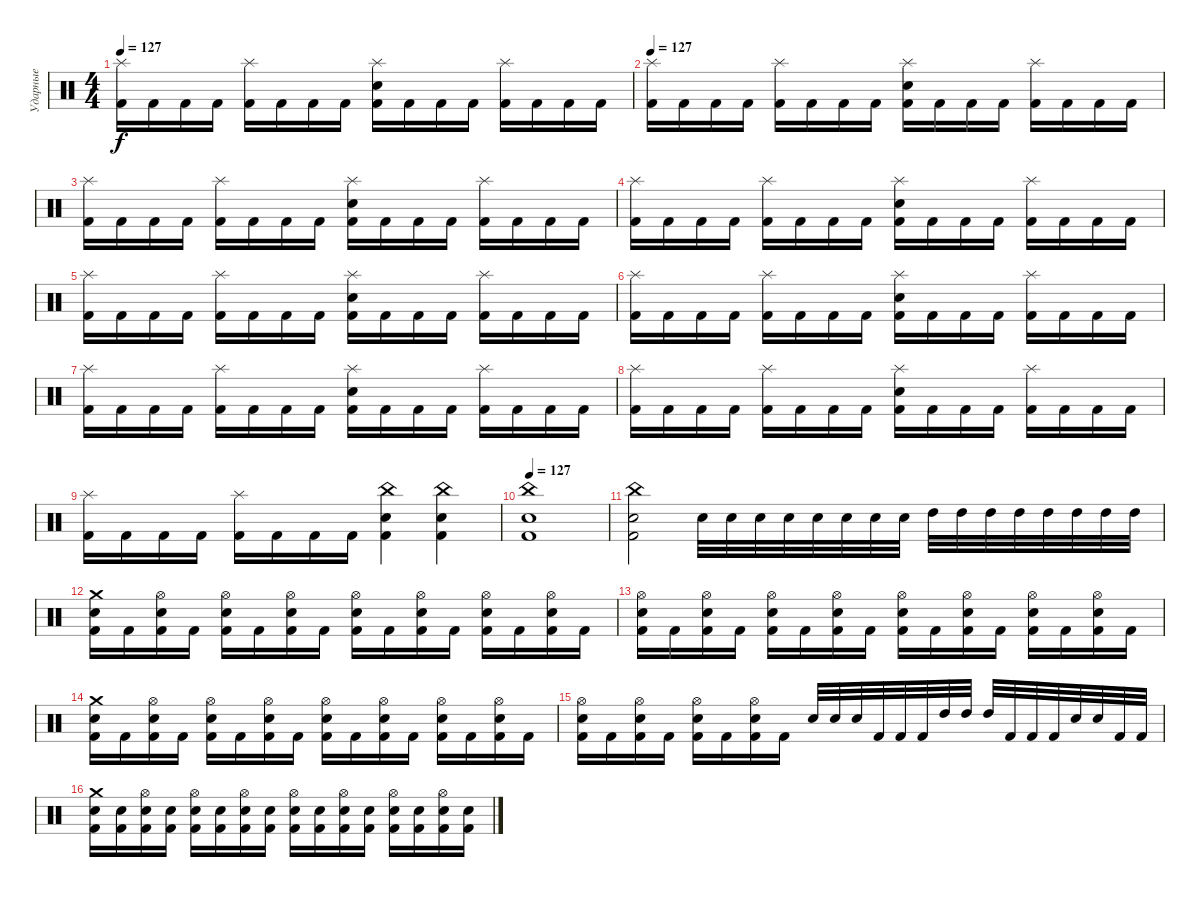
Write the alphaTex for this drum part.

\track ("Ударные" "Ударные") {instrument percussion bank 1}
\staff {score}
\articulation defaults
\ts (4 4)
\tempo 127
\clef neutral
\ks c
("Splash (hit)" "Kick (hit) 2").16{dy f} "Kick (hit) 2".16 "Kick (hit) 2".16 "Kick (hit) 2".16 ("Splash (hit)" "Kick (hit) 2").16 "Kick (hit) 2".16 "Kick (hit) 2".16 "Kick (hit) 2".16 ("Splash (hit)" "Electric Snare (hit)" "Kick (hit) 2").16 "Kick (hit) 2".16 "Kick (hit) 2".16 "Kick (hit) 2".16 ("Splash (hit)" "Kick (hit) 2").16 "Kick (hit) 2".16 "Kick (hit) 2".16 "Kick (hit) 2".16 |
\tempo 127
("Splash (hit)" "Kick (hit) 2").16 "Kick (hit) 2".16 "Kick (hit) 2".16 "Kick (hit) 2".16 ("Splash (hit)" "Kick (hit) 2").16 "Kick (hit) 2".16 "Kick (hit) 2".16 "Kick (hit) 2".16 ("Splash (hit)" "Electric Snare (hit)" "Kick (hit) 2").16 "Kick (hit) 2".16 "Kick (hit) 2".16 "Kick (hit) 2".16 ("Splash (hit)" "Kick (hit) 2").16 "Kick (hit) 2".16 "Kick (hit) 2".16 "Kick (hit) 2".16 |
("Splash (hit)" "Kick (hit) 2").16 "Kick (hit) 2".16 "Kick (hit) 2".16 "Kick (hit) 2".16 ("Splash (hit)" "Kick (hit) 2").16 "Kick (hit) 2".16 "Kick (hit) 2".16 "Kick (hit) 2".16 ("Splash (hit)" "Electric Snare (hit)" "Kick (hit) 2").16 "Kick (hit) 2".16 "Kick (hit) 2".16 "Kick (hit) 2".16 ("Splash (hit)" "Kick (hit) 2").16 "Kick (hit) 2".16 "Kick (hit) 2".16 "Kick (hit) 2".16 |
("Splash (hit)" "Kick (hit) 2").16 "Kick (hit) 2".16 "Kick (hit) 2".16 "Kick (hit) 2".16 ("Splash (hit)" "Kick (hit) 2").16 "Kick (hit) 2".16 "Kick (hit) 2".16 "Kick (hit) 2".16 ("Splash (hit)" "Electric Snare (hit)" "Kick (hit) 2").16 "Kick (hit) 2".16 "Kick (hit) 2".16 "Kick (hit) 2".16 ("Splash (hit)" "Kick (hit) 2").16 "Kick (hit) 2".16 "Kick (hit) 2".16 "Kick (hit) 2".16 |
("Splash (hit)" "Kick (hit) 2").16 "Kick (hit) 2".16 "Kick (hit) 2".16 "Kick (hit) 2".16 ("Splash (hit)" "Kick (hit) 2").16 "Kick (hit) 2".16 "Kick (hit) 2".16 "Kick (hit) 2".16 ("Splash (hit)" "Electric Snare (hit)" "Kick (hit) 2").16 "Kick (hit) 2".16 "Kick (hit) 2".16 "Kick (hit) 2".16 ("Splash (hit)" "Kick (hit) 2").16 "Kick (hit) 2".16 "Kick (hit) 2".16 "Kick (hit) 2".16 |
("Splash (hit)" "Kick (hit) 2").16 "Kick (hit) 2".16 "Kick (hit) 2".16 "Kick (hit) 2".16 ("Splash (hit)" "Kick (hit) 2").16 "Kick (hit) 2".16 "Kick (hit) 2".16 "Kick (hit) 2".16 ("Splash (hit)" "Electric Snare (hit)" "Kick (hit) 2").16 "Kick (hit) 2".16 "Kick (hit) 2".16 "Kick (hit) 2".16 ("Splash (hit)" "Kick (hit) 2").16 "Kick (hit) 2".16 "Kick (hit) 2".16 "Kick (hit) 2".16 |
("Splash (hit)" "Kick (hit) 2").16 "Kick (hit) 2".16 "Kick (hit) 2".16 "Kick (hit) 2".16 ("Splash (hit)" "Kick (hit) 2").16 "Kick (hit) 2".16 "Kick (hit) 2".16 "Kick (hit) 2".16 ("Splash (hit)" "Electric Snare (hit)" "Kick (hit) 2").16 "Kick (hit) 2".16 "Kick (hit) 2".16 "Kick (hit) 2".16 ("Splash (hit)" "Kick (hit) 2").16 "Kick (hit) 2".16 "Kick (hit) 2".16 "Kick (hit) 2".16 |
("Splash (hit)" "Kick (hit) 2").16 "Kick (hit) 2".16 "Kick (hit) 2".16 "Kick (hit) 2".16 ("Splash (hit)" "Kick (hit) 2").16 "Kick (hit) 2".16 "Kick (hit) 2".16 "Kick (hit) 2".16 ("Splash (hit)" "Electric Snare (hit)" "Kick (hit) 2").16 "Kick (hit) 2".16 "Kick (hit) 2".16 "Kick (hit) 2".16 ("Splash (hit)" "Kick (hit) 2").16 "Kick (hit) 2".16 "Kick (hit) 2".16 "Kick (hit) 2".16 |
("Splash (hit)" "Kick (hit) 2").16 "Kick (hit) 2".16 "Kick (hit) 2".16 "Kick (hit) 2".16 ("Splash (hit)" "Kick (hit) 2").16 "Kick (hit) 2".16 "Kick (hit) 2".16 "Kick (hit) 2".16 ("China (hit)" "Electric Snare (hit)" "Kick (hit) 2").4 ("China (hit)" "Electric Snare (hit)" "Kick (hit) 2").4 |
\tempo 127
("China (hit)" "Electric Snare (hit)" "Kick (hit) 2").1 |
("China (hit)" "Electric Snare (hit)" "Kick (hit) 2").2 "Electric Snare (hit)".32 "Electric Snare (hit)".32 "Electric Snare (hit)".32 "Electric Snare (hit)".32 "Electric Snare (hit)".32 "Electric Snare (hit)".32 "Electric Snare (hit)".32 "Electric Snare (hit)".32 "High Tom (hit)".32 "High Tom (hit)".32 "High Tom (hit)".32 "High Tom (hit)".32 "High Tom (hit)".32 "High Tom (hit)".32 "High Tom (hit)".32 "High Tom (hit)".32 |
("Crash medium (hit)" "Electric Snare (hit)" "Kick (hit) 2").16 "Kick (hit) 2".16 ("Hi-Hat (open)" "Electric Snare (hit)" "Kick (hit) 2").16 "Kick (hit) 2".16 ("Hi-Hat (open)" "Electric Snare (hit)" "Kick (hit) 2").16 "Kick (hit) 2".16 ("Hi-Hat (open)" "Electric Snare (hit)" "Kick (hit) 2").16 "Kick (hit) 2".16 ("Hi-Hat (open)" "Electric Snare (hit)" "Kick (hit) 2").16 "Kick (hit) 2".16 ("Hi-Hat (open)" "Electric Snare (hit)" "Kick (hit) 2").16 "Kick (hit) 2".16 ("Hi-Hat (open)" "Electric Snare (hit)" "Kick (hit) 2").16 "Kick (hit) 2".16 ("Hi-Hat (open)" "Electric Snare (hit)" "Kick (hit) 2").16 "Kick (hit) 2".16 |
("Hi-Hat (open)" "Electric Snare (hit)" "Kick (hit) 2").16 "Kick (hit) 2".16 ("Hi-Hat (open)" "Electric Snare (hit)" "Kick (hit) 2").16 "Kick (hit) 2".16 ("Hi-Hat (open)" "Electric Snare (hit)" "Kick (hit) 2").16 "Kick (hit) 2".16 ("Hi-Hat (open)" "Electric Snare (hit)" "Kick (hit) 2").16 "Kick (hit) 2".16 ("Hi-Hat (open)" "Electric Snare (hit)" "Kick (hit) 2").16 "Kick (hit) 2".16 ("Hi-Hat (open)" "Electric Snare (hit)" "Kick (hit) 2").16 "Kick (hit) 2".16 ("Hi-Hat (open)" "Electric Snare (hit)" "Kick (hit) 2").16 "Kick (hit) 2".16 ("Hi-Hat (open)" "Electric Snare (hit)" "Kick (hit) 2").16 "Kick (hit) 2".16 |
("Crash medium (hit)" "Electric Snare (hit)" "Kick (hit) 2").16 "Kick (hit) 2".16 ("Hi-Hat (open)" "Electric Snare (hit)" "Kick (hit) 2").16 "Kick (hit) 2".16 ("Hi-Hat (open)" "Electric Snare (hit)" "Kick (hit) 2").16 "Kick (hit) 2".16 ("Hi-Hat (open)" "Electric Snare (hit)" "Kick (hit) 2").16 "Kick (hit) 2".16 ("Hi-Hat (open)" "Electric Snare (hit)" "Kick (hit) 2").16 "Kick (hit) 2".16 ("Hi-Hat (open)" "Electric Snare (hit)" "Kick (hit) 2").16 "Kick (hit) 2".16 ("Hi-Hat (open)" "Electric Snare (hit)" "Kick (hit) 2").16 "Kick (hit) 2".16 ("Hi-Hat (open)" "Electric Snare (hit)" "Kick (hit) 2").16 "Kick (hit) 2".16 |
("Hi-Hat (open)" "Electric Snare (hit)" "Kick (hit) 2").16 "Kick (hit) 2".16 ("Hi-Hat (open)" "Electric Snare (hit)" "Kick (hit) 2").16 "Kick (hit) 2".16 ("Hi-Hat (open)" "Electric Snare (hit)" "Kick (hit) 2").16 "Kick (hit) 2".16 ("Hi-Hat (open)" "Electric Snare (hit)" "Kick (hit) 2").16 "Kick (hit) 2".16 "Electric Snare (hit)".32 "Electric Snare (hit)".32 "Electric Snare (hit)".32 "Kick (hit) 2".32 "Kick (hit) 2".32 "Kick (hit) 2".32 "High Tom (hit)".32 "High Tom (hit)".32 "High Tom (hit)".32 "Kick (hit) 2".32 "Kick (hit) 2".32 "Kick (hit) 2".32 "Electric Snare (hit)".32 "Electric Snare (hit)".32 "Kick (hit) 2".32 "Kick (hit) 2".32 |
("Crash medium (hit)" "Electric Snare (hit)" "Kick (hit) 2").16 ("Electric Snare (hit)" "Kick (hit) 2").16 ("Hi-Hat (open)" "Electric Snare (hit)" "Kick (hit) 2").16 ("Electric Snare (hit)" "Kick (hit) 2").16 ("Hi-Hat (open)" "Electric Snare (hit)" "Kick (hit) 2").16 ("Electric Snare (hit)" "Kick (hit) 2").16 ("Hi-Hat (open)" "Electric Snare (hit)" "Kick (hit) 2").16 ("Electric Snare (hit)" "Kick (hit) 2").16 ("Hi-Hat (open)" "Electric Snare (hit)" "Kick (hit) 2").16 ("Electric Snare (hit)" "Kick (hit) 2").16 ("Hi-Hat (open)" "Electric Snare (hit)" "Kick (hit) 2").16 ("Electric Snare (hit)" "Kick (hit) 2").16 ("Hi-Hat (open)" "Electric Snare (hit)" "Kick (hit) 2").16 ("Electric Snare (hit)" "Kick (hit) 2").16 ("Hi-Hat (open)" "Electric Snare (hit)" "Kick (hit) 2").16 ("Electric Snare (hit)" "Kick (hit) 2").16
